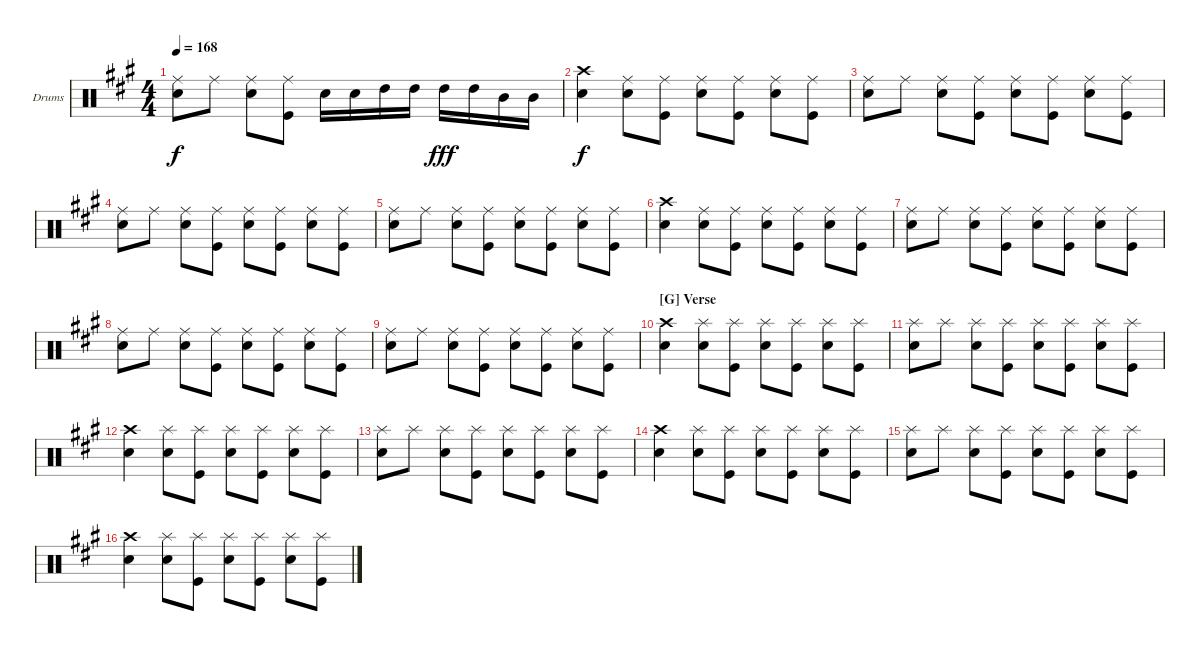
\defaultSystemsLayout 4
\bracketExtendMode groupsimilarinstruments
\firstSystemTrackNameOrientation horizontal
\otherSystemsTrackNameOrientation horizontal
\track ("Drumkit" "Drums") {instrument percussion}
\staff {score}
\articulation defaults
\ts (4 4)
\tempo 168
\clef neutral
\scale
1.05801
\ks a
("Ride (middle)" "Snare (hit) 2").8{dy f} "Ride (middle)".8 ("Ride (middle)" "Snare (hit) 2").8 ("Ride (middle)" "Kick (hit)").8 "Snare (hit) 2".16 "Snare (hit) 2".16 "High Tom (hit)".16 "High Tom (hit)".16 "High Tom (hit)".16{dy fff} "High Tom (hit)".16 "Mid Tom (hit)".16 "Mid Tom (hit)".16 |
\scale
0.941992 ("Crash high (hit)" "Snare (hit) 2").4{dy f} ("Ride (middle)" "Snare (hit) 2").8 ("Ride (middle)" "Kick (hit)").8 ("Ride (middle)" "Snare (hit) 2").8 ("Ride (middle)" "Kick (hit)").8 ("Ride (middle)" "Snare (hit) 2").8 ("Ride (middle)" "Kick (hit)").8 |
\scale
1.05801 ("Ride (middle)" "Snare (hit) 2").8 "Ride (middle)".8 ("Ride (middle)" "Snare (hit) 2").8 ("Ride (middle)" "Kick (hit)").8 ("Ride (middle)" "Snare (hit) 2").8 ("Ride (middle)" "Kick (hit)").8 ("Ride (middle)" "Snare (hit) 2").8 ("Ride (middle)" "Kick (hit)").8 |
\scale
0.941992 ("Ride (middle)" "Snare (hit) 2").8 "Ride (middle)".8 ("Ride (middle)" "Snare (hit) 2").8 ("Ride (middle)" "Kick (hit)").8 ("Ride (middle)" "Snare (hit) 2").8 ("Ride (middle)" "Kick (hit)").8 ("Ride (middle)" "Snare (hit) 2").8 ("Ride (middle)" "Kick (hit)").8 |
\scale
1.05801 ("Ride (middle)" "Snare (hit) 2").8 "Ride (middle)".8 ("Ride (middle)" "Snare (hit) 2").8 ("Ride (middle)" "Kick (hit)").8 ("Ride (middle)" "Snare (hit) 2").8 ("Ride (middle)" "Kick (hit)").8 ("Ride (middle)" "Snare (hit) 2").8 ("Ride (middle)" "Kick (hit)").8 |
\scale
0.941992 ("Crash high (hit)" "Snare (hit) 2").4 ("Ride (middle)" "Snare (hit) 2").8 ("Ride (middle)" "Kick (hit)").8 ("Ride (middle)" "Snare (hit) 2").8 ("Ride (middle)" "Kick (hit)").8 ("Ride (middle)" "Snare (hit) 2").8 ("Ride (middle)" "Kick (hit)").8 |
\scale
1.05801 ("Ride (middle)" "Snare (hit) 2").8 "Ride (middle)".8 ("Ride (middle)" "Snare (hit) 2").8 ("Ride (middle)" "Kick (hit)").8 ("Ride (middle)" "Snare (hit) 2").8 ("Ride (middle)" "Kick (hit)").8 ("Ride (middle)" "Snare (hit) 2").8 ("Ride (middle)" "Kick (hit)").8 |
\scale
0.941992 ("Ride (middle)" "Snare (hit) 2").8 "Ride (middle)".8 ("Ride (middle)" "Snare (hit) 2").8 ("Ride (middle)" "Kick (hit)").8 ("Ride (middle)" "Snare (hit) 2").8 ("Ride (middle)" "Kick (hit)").8 ("Ride (middle)" "Snare (hit) 2").8 ("Ride (middle)" "Kick (hit)").8 |
\scale
1.05801 ("Ride (middle)" "Snare (hit) 2").8 "Ride (middle)".8 ("Ride (middle)" "Snare (hit) 2").8 ("Ride (middle)" "Kick (hit)").8 ("Ride (middle)" "Snare (hit) 2").8 ("Ride (middle)" "Kick (hit)").8 ("Ride (middle)" "Snare (hit) 2").8 ("Ride (middle)" "Kick (hit)").8 |
\section ("G" "Verse")
\scale
0.941992 ("Crash high (hit)" "Snare (hit) 2").4 ("Splash (hit)" "Snare (hit) 2").8 ("Splash (hit)" "Kick (hit)").8 ("Splash (hit)" "Snare (hit) 2").8 ("Splash (hit)" "Kick (hit)").8 ("Splash (hit)" "Snare (hit) 2").8 ("Splash (hit)" "Kick (hit)").8 |
\scale
1.05801 ("Splash (hit)" "Snare (hit) 2").8 "Splash (hit)".8 ("Splash (hit)" "Snare (hit) 2").8 ("Splash (hit)" "Kick (hit)").8 ("Splash (hit)" "Snare (hit) 2").8 ("Splash (hit)" "Kick (hit)").8 ("Splash (hit)" "Snare (hit) 2").8 ("Splash (hit)" "Kick (hit)").8 |
\scale
0.941992 ("Crash high (hit)" "Snare (hit) 2").4 ("Splash (hit)" "Snare (hit) 2").8 ("Splash (hit)" "Kick (hit)").8 ("Splash (hit)" "Snare (hit) 2").8 ("Splash (hit)" "Kick (hit)").8 ("Splash (hit)" "Snare (hit) 2").8 ("Splash (hit)" "Kick (hit)").8 |
\scale
1.05801 ("Splash (hit)" "Snare (hit) 2").8 "Splash (hit)".8 ("Splash (hit)" "Snare (hit) 2").8 ("Splash (hit)" "Kick (hit)").8 ("Splash (hit)" "Snare (hit) 2").8 ("Splash (hit)" "Kick (hit)").8 ("Splash (hit)" "Snare (hit) 2").8 ("Splash (hit)" "Kick (hit)").8 |
\scale
0.941992 ("Crash high (hit)" "Snare (hit) 2").4 ("Splash (hit)" "Snare (hit) 2").8 ("Splash (hit)" "Kick (hit)").8 ("Splash (hit)" "Snare (hit) 2").8 ("Splash (hit)" "Kick (hit)").8 ("Splash (hit)" "Snare (hit) 2").8 ("Splash (hit)" "Kick (hit)").8 |
\scale
1.05801 ("Splash (hit)" "Snare (hit) 2").8 "Splash (hit)".8 ("Splash (hit)" "Snare (hit) 2").8 ("Splash (hit)" "Kick (hit)").8 ("Splash (hit)" "Snare (hit) 2").8 ("Splash (hit)" "Kick (hit)").8 ("Splash (hit)" "Snare (hit) 2").8 ("Splash (hit)" "Kick (hit)").8 |
\scale
0.941992 ("Crash high (hit)" "Snare (hit) 2").4 ("Splash (hit)" "Snare (hit) 2").8 ("Splash (hit)" "Kick (hit)").8 ("Splash (hit)" "Snare (hit) 2").8 ("Splash (hit)" "Kick (hit)").8 ("Splash (hit)" "Snare (hit) 2").8 ("Splash (hit)" "Kick (hit)").8
